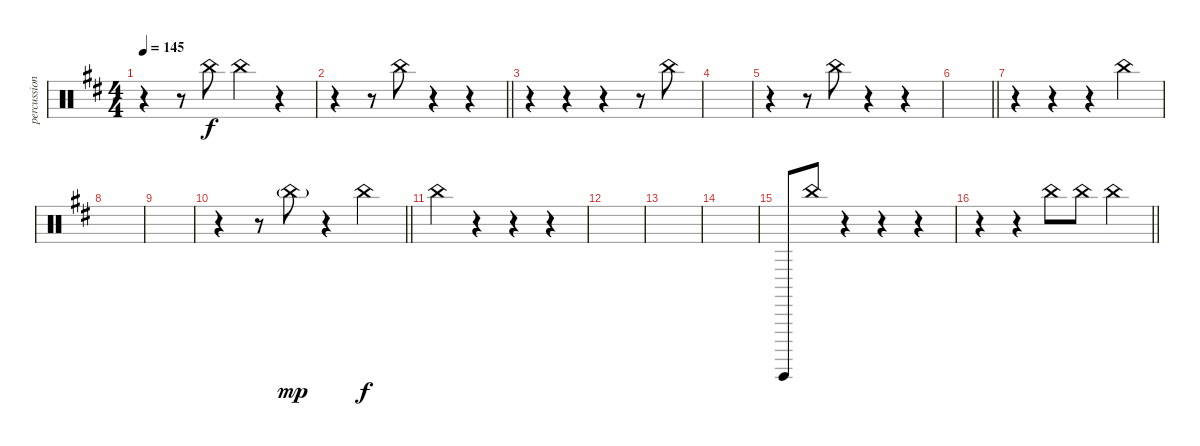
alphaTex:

\track ("percussion" "percussion") {instrument percussion}
\staff {score}
\articulation defaults
\ts (4 4)
\tempo 145
\clef neutral
\ks d
r.4{dy f} r.8 "China (hit)".8 "China (hit)".4 r.4 |
\barLineRight lightlight
r.4 r.8 "China (hit)".8 r.4 r.4 |
r.4 r.4 r.4 r.8 "China (hit)".8 |
|
r.4 r.8 "China (hit)".8 r.4 r.4 |
\barLineRight lightlight
|
r.4 r.4 r.4 "China (hit)".4 |
|
|
\barLineRight lightlight
r.4 r.8 "China (hit)"{g}.8{dy mp} r.4 "China (hit)".4{dy f} |
"China (hit)".4 r.4 r.4 r.4 |
|
|
|
"Guiro (hit)".8 "China (hit)".8 r.4 r.4 r.4 |
\barLineRight lightlight
r.4 r.4 "China (hit)".8 "China (hit)".8 "China (hit)".4
